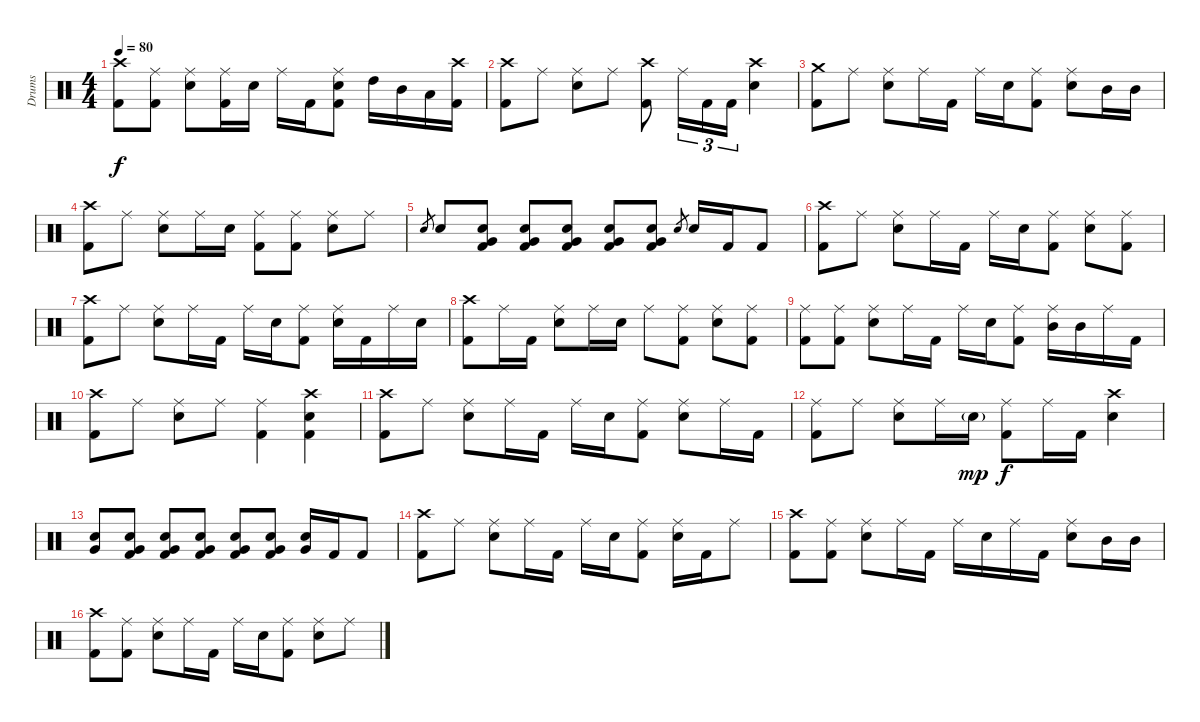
\track ("Drums" "Drums") {instrument percussion}
\staff {score}
\articulation defaults
\ts (4 4)
\tempo 80
\clef neutral
\ks c
("Crash high (hit)" "Kick (hit) 2").8{dy f} ("Ride (middle)" "Kick (hit) 2").8 ("Ride (middle)" "Electric Snare (hit)").8 ("Ride (middle)" "Kick (hit) 2").16 "Electric Snare (hit)".16 "Ride (middle)".16 "Kick (hit) 2".16 ("Ride (middle)" "Electric Snare (hit)" "Kick (hit) 2").8 "High Tom (hit)".16 "Mid Tom (hit)".16 "Low Tom (hit)".16 ("Crash high (hit)" "Kick (hit) 2").16 |
("Crash high (hit)" "Kick (hit) 2").8 "Ride (middle)".8 ("Ride (middle)" "Electric Snare (hit)").8 "Ride (middle)".8 ("Crash high (hit)" "Kick (hit) 2").8 "Ride (middle)".16{tu (3 2)} "Kick (hit) 2".16{tu (3 2)} "Kick (hit) 2".16{tu (3 2)} ("Crash high (hit)" "Electric Snare (hit)").4 |
("Crash medium (hit)" "Kick (hit) 2").8 "Ride (middle)".8 ("Ride (middle)" "Electric Snare (hit)").8 "Ride (middle)".16 "Kick (hit) 2".16 "Ride (middle)".16 "Electric Snare (hit)".16 ("Ride (middle)" "Kick (hit) 2").8 ("Ride (middle)" "Electric Snare (hit)").8 "Mid Tom (hit)".16 "Mid Tom (hit)".16 |
("Crash high (hit)" "Kick (hit) 2").8 "Ride (middle)".8 ("Ride (middle)" "Electric Snare (hit)").8 "Ride (middle)".16 "Electric Snare (hit)".16 ("Ride (middle)" "Kick (hit) 2").8 ("Ride (middle)" "Kick (hit) 2").8 ("Ride (middle)" "Electric Snare (hit)").8 "Ride (middle)".8 |
"Electric Snare (hit)".8{gr} "Electric Snare (hit)".8 ("Electric Snare (hit)" "Very Low Tom (hit)" "Kick (hit) 2").8 ("Electric Snare (hit)" "Very Low Tom (hit)" "Kick (hit) 2").8 ("Electric Snare (hit)" "Very Low Tom (hit)" "Kick (hit) 2").8 ("Electric Snare (hit)" "Very Low Tom (hit)" "Kick (hit) 2").8 ("Electric Snare (hit)" "Very Low Tom (hit)" "Kick (hit) 2").8 "Electric Snare (hit)".8{gr} "Electric Snare (hit)".16 "Kick (hit) 2".16 "Kick (hit) 2".8 |
("Crash high (hit)" "Kick (hit) 2").8 "Ride (middle)".8 ("Ride (middle)" "Electric Snare (hit)").8 "Ride (middle)".16 "Kick (hit) 2".16 "Ride (middle)".16 "Electric Snare (hit)".16 ("Ride (middle)" "Kick (hit) 2").8 ("Ride (middle)" "Electric Snare (hit)").8 ("Ride (middle)" "Kick (hit) 2").8 |
("Crash high (hit)" "Kick (hit) 2").8 "Ride (middle)".8 ("Ride (middle)" "Electric Snare (hit)").8 "Ride (middle)".16 "Kick (hit) 2".16 "Ride (middle)".16 "Electric Snare (hit)".16 ("Ride (middle)" "Kick (hit) 2").8 ("Ride (middle)" "Electric Snare (hit)").16 "Kick (hit) 2".16 "Ride (middle)".16 "Electric Snare (hit)".16 |
("Crash high (hit)" "Kick (hit) 2").8 "Ride (middle)".16 "Kick (hit) 2".16 ("Ride (middle)" "Electric Snare (hit)").8 "Ride (middle)".16 "Electric Snare (hit)".16 "Ride (middle)".8 ("Ride (middle)" "Kick (hit) 2").8 ("Ride (middle)" "Electric Snare (hit)").8 ("Ride (middle)" "Kick (hit) 2").8 |
("Ride (middle)" "Kick (hit) 2").8 ("Ride (middle)" "Kick (hit) 2").8 ("Ride (middle)" "Electric Snare (hit)").8 "Ride (middle)".16 "Kick (hit) 2".16 "Ride (middle)".16 "Electric Snare (hit)".16 ("Ride (middle)" "Kick (hit) 2").8 ("Ride (middle)" "Mid Tom (hit)").16 "Mid Tom (hit)".16 "Ride (middle)".16 "Kick (hit) 2".16 |
("Crash high (hit)" "Kick (hit) 2").8 "Ride (middle)".8 ("Ride (middle)" "Electric Snare (hit)").8 "Ride (middle)".8 ("Ride (middle)" "Kick (hit) 2").4 ("Crash high (hit)" "Electric Snare (hit)" "Kick (hit) 2").4 |
("Crash high (hit)" "Kick (hit) 2").8 "Ride (middle)".8 ("Ride (middle)" "Electric Snare (hit)").8 "Ride (middle)".16 "Kick (hit) 2".16 "Ride (middle)".16 "Electric Snare (hit)".16 ("Ride (middle)" "Kick (hit) 2").8 ("Ride (middle)" "Electric Snare (hit)").8 "Ride (middle)".16 "Kick (hit) 2".16 |
("Ride (middle)" "Kick (hit) 2").8 "Ride (middle)".8 ("Ride (middle)" "Electric Snare (hit)").8 "Ride (middle)".16 "Electric Snare (hit)"{g}.16{dy mp} ("Ride (middle)" "Kick (hit) 2").8{dy f} "Ride (middle)".16 "Kick (hit) 2".16 ("Crash high (hit)" "Electric Snare (hit)").4 |
("Electric Snare (hit)" "Very Low Tom (hit)").8 ("Electric Snare (hit)" "Very Low Tom (hit)" "Kick (hit) 2").8 ("Electric Snare (hit)" "Very Low Tom (hit)" "Kick (hit) 2").8 ("Electric Snare (hit)" "Very Low Tom (hit)" "Kick (hit) 2").8 ("Electric Snare (hit)" "Very Low Tom (hit)" "Kick (hit) 2").8 ("Electric Snare (hit)" "Very Low Tom (hit)" "Kick (hit) 2").8 ("Electric Snare (hit)" "Very Low Tom (hit)").16 "Kick (hit) 2".16 "Kick (hit) 2".8 |
("Crash high (hit)" "Kick (hit) 2").8 "Ride (middle)".8 ("Ride (middle)" "Electric Snare (hit)").8 "Ride (middle)".16 "Kick (hit) 2".16 "Ride (middle)".16 "Electric Snare (hit)".16 ("Ride (middle)" "Kick (hit) 2").8 ("Ride (middle)" "Electric Snare (hit)").16 "Kick (hit) 2".16 "Ride (middle)".8 |
("Crash high (hit)" "Kick (hit) 2").8 ("Ride (middle)" "Kick (hit) 2").8 ("Ride (middle)" "Electric Snare (hit)").8 "Ride (middle)".16 "Kick (hit) 2".16 "Ride (middle)".16 "Electric Snare (hit)".16 "Ride (middle)".16 "Kick (hit) 2".16 ("Ride (middle)" "Electric Snare (hit)").8 "Mid Tom (hit)".16 "Mid Tom (hit)".16 |
("Crash high (hit)" "Kick (hit) 2").8 ("Ride (middle)" "Kick (hit) 2").8 ("Ride (middle)" "Electric Snare (hit)").8 "Ride (middle)".16 "Kick (hit) 2".16 "Ride (middle)".16 "Electric Snare (hit)".16 ("Ride (middle)" "Kick (hit) 2").8 ("Ride (middle)" "Electric Snare (hit)").8 "Ride (middle)".8
